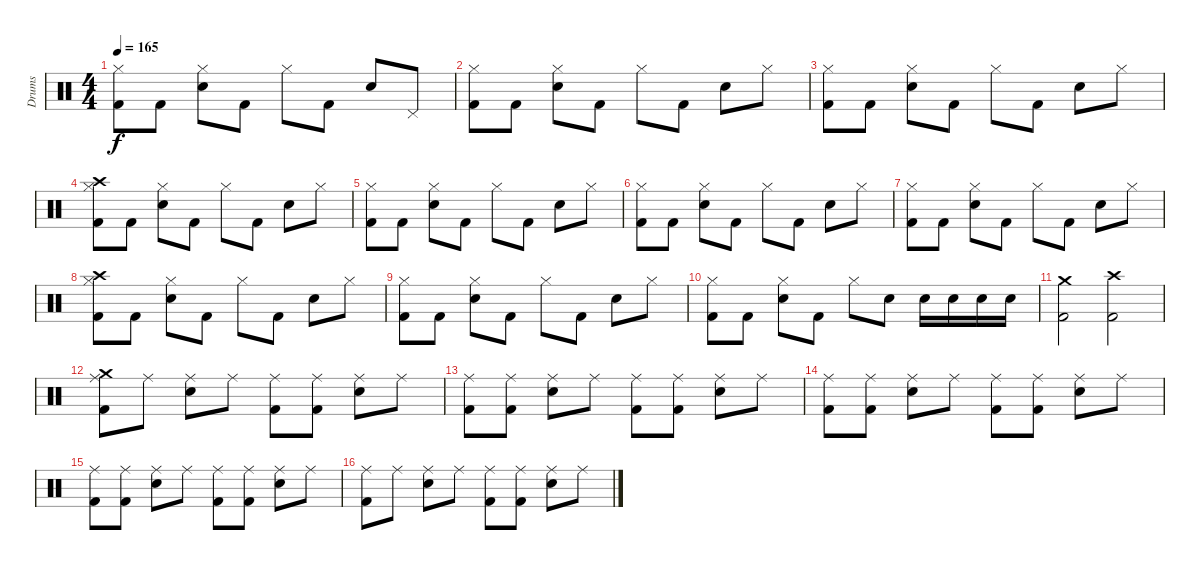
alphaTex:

\track ("Drums" "Drums") {instrument percussion}
\staff {score}
\articulation defaults
\ts (4 4)
\tempo 165
\clef neutral
\ks c
("Kick (hit) 2" "Hi-Hat (closed)").8{dy f} "Kick (hit) 2".8 ("Snare (hit) 2" "Hi-Hat (closed)").8 "Kick (hit) 2".8 "Hi-Hat (closed)".8 "Kick (hit) 2".8 "Snare (hit) 2".8 "Pedal Hi-Hat (hit)".8 |
("Kick (hit) 2" "Hi-Hat (closed)").8 "Kick (hit) 2".8 ("Snare (hit) 2" "Hi-Hat (closed)").8 "Kick (hit) 2".8 "Hi-Hat (closed)".8 "Kick (hit) 2".8 "Snare (hit) 2".8 "Hi-Hat (closed)".8 |
("Kick (hit) 2" "Hi-Hat (closed)").8 "Kick (hit) 2".8 ("Snare (hit) 2" "Hi-Hat (closed)").8 "Kick (hit) 2".8 "Hi-Hat (closed)".8 "Kick (hit) 2".8 "Snare (hit) 2".8 "Hi-Hat (closed)".8 |
("Crash high (hit)" "Kick (hit) 2" "Hi-Hat (closed)").8 "Kick (hit) 2".8 ("Snare (hit) 2" "Hi-Hat (closed)").8 "Kick (hit) 2".8 "Hi-Hat (closed)".8 "Kick (hit) 2".8 "Snare (hit) 2".8 "Hi-Hat (closed)".8 |
("Kick (hit) 2" "Hi-Hat (closed)").8 "Kick (hit) 2".8 ("Snare (hit) 2" "Hi-Hat (closed)").8 "Kick (hit) 2".8 "Hi-Hat (closed)".8 "Kick (hit) 2".8 "Snare (hit) 2".8 "Hi-Hat (closed)".8 |
("Kick (hit) 2" "Hi-Hat (closed)").8 "Kick (hit) 2".8 ("Snare (hit) 2" "Hi-Hat (closed)").8 "Kick (hit) 2".8 "Hi-Hat (closed)".8 "Kick (hit) 2".8 "Snare (hit) 2".8 "Hi-Hat (closed)".8 |
("Kick (hit) 2" "Hi-Hat (closed)").8 "Kick (hit) 2".8 ("Snare (hit) 2" "Hi-Hat (closed)").8 "Kick (hit) 2".8 "Hi-Hat (closed)".8 "Kick (hit) 2".8 "Snare (hit) 2".8 "Hi-Hat (closed)".8 |
("Crash high (hit)" "Kick (hit) 2" "Hi-Hat (closed)").8 "Kick (hit) 2".8 ("Snare (hit) 2" "Hi-Hat (closed)").8 "Kick (hit) 2".8 "Hi-Hat (closed)".8 "Kick (hit) 2".8 "Snare (hit) 2".8 "Hi-Hat (closed)".8 |
("Kick (hit) 2" "Hi-Hat (closed)").8 "Kick (hit) 2".8 ("Snare (hit) 2" "Hi-Hat (closed)").8 "Kick (hit) 2".8 "Hi-Hat (closed)".8 "Kick (hit) 2".8 "Snare (hit) 2".8 "Hi-Hat (closed)".8 |
("Kick (hit) 2" "Hi-Hat (closed)").8 "Kick (hit) 2".8 ("Snare (hit) 2" "Hi-Hat (closed)").8 "Kick (hit) 2".8 "Hi-Hat (closed)".8 "Snare (hit) 2".8 "Snare (hit) 2".16 "Snare (hit) 2".16 "Snare (hit) 2".16 "Snare (hit) 2".16 |
("Kick (hit) 2" "Crash medium (hit)").2 ("Kick (hit) 2" "Crash high (hit)").2 |
("Crash medium (hit)" "Kick (hit) 2" "Ride (middle)").8 "Ride (middle)".8 ("Snare (hit) 2" "Ride (middle)").8 "Ride (middle)".8 ("Kick (hit) 2" "Ride (middle)").8 ("Kick (hit) 2" "Ride (middle)").8 ("Snare (hit) 2" "Ride (middle)").8 "Ride (middle)".8 |
("Kick (hit) 2" "Ride (middle)").8 ("Kick (hit) 2" "Ride (middle)").8 ("Snare (hit) 2" "Ride (middle)").8 "Ride (middle)".8 ("Kick (hit) 2" "Ride (middle)").8 ("Kick (hit) 2" "Ride (middle)").8 ("Snare (hit) 2" "Ride (middle)").8 "Ride (middle)".8 |
("Kick (hit) 2" "Ride (middle)").8 ("Kick (hit) 2" "Ride (middle)").8 ("Snare (hit) 2" "Ride (middle)").8 "Ride (middle)".8 ("Kick (hit) 2" "Ride (middle)").8 ("Kick (hit) 2" "Ride (middle)").8 ("Snare (hit) 2" "Ride (middle)").8 "Ride (middle)".8 |
("Kick (hit) 2" "Ride (middle)").8 ("Kick (hit) 2" "Ride (middle)").8 ("Snare (hit) 2" "Ride (middle)").8 "Ride (middle)".8 ("Kick (hit) 2" "Ride (middle)").8 ("Kick (hit) 2" "Ride (middle)").8 ("Snare (hit) 2" "Ride (middle)").8 "Ride (middle)".8 |
("Kick (hit) 2" "Ride (middle)").8 "Ride (middle)".8 ("Snare (hit) 2" "Ride (middle)").8 "Ride (middle)".8 ("Kick (hit) 2" "Ride (middle)").8 ("Kick (hit) 2" "Ride (middle)").8 ("Snare (hit) 2" "Ride (middle)").8 "Ride (middle)".8
